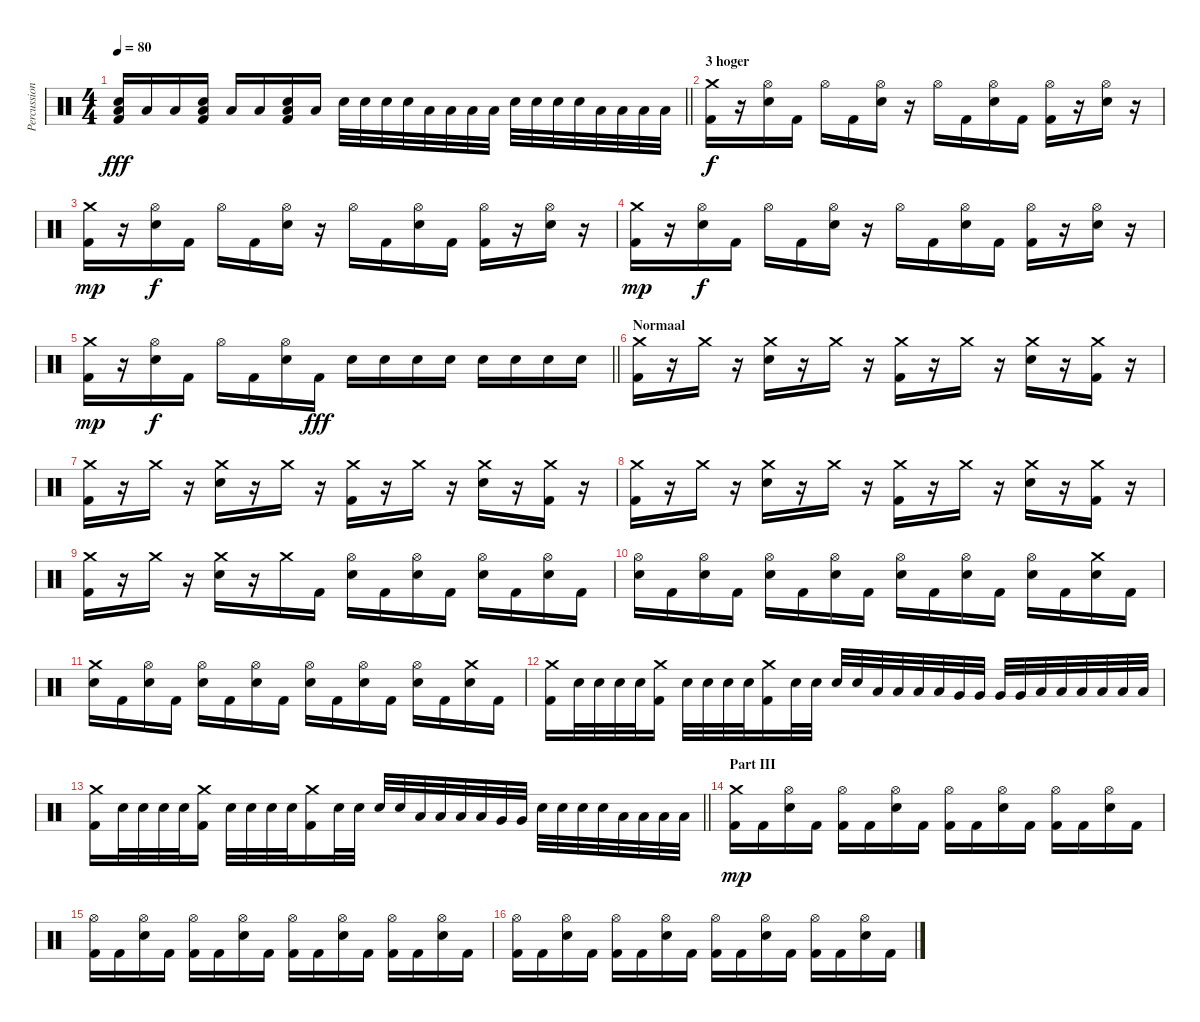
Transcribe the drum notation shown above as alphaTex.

\track ("Percussion" "Percussion") {instrument percussion}
\staff {score}
\articulation defaults
\ts (4 4)
\tempo 80
\clef neutral
\barLineRight lightlight
\ks c
("Electric Snare (hit)" "Low Floor Tom (hit)" "Kick (hit) 2").16{dy fff} "Low Floor Tom (hit)".16 "Low Floor Tom (hit)".16 ("Electric Snare (hit)" "Low Floor Tom (hit)" "Kick (hit) 2").16 "Low Floor Tom (hit)".16 "Low Floor Tom (hit)".16 ("Electric Snare (hit)" "Low Floor Tom (hit)" "Kick (hit) 2").16 "Low Floor Tom (hit)".16 "Electric Snare (hit)".32 "Electric Snare (hit)".32 "Electric Snare (hit)".32 "Electric Snare (hit)".32 "Low Tom (hit)".32 "Low Tom (hit)".32 "Low Tom (hit)".32 "Low Tom (hit)".32 "Electric Snare (hit)".32 "Electric Snare (hit)".32 "Electric Snare (hit)".32 "Electric Snare (hit)".32 "Low Floor Tom (hit)".32 "Low Floor Tom (hit)".32 "Low Floor Tom (hit)".32 "Low Floor Tom (hit)".32 |
\section ("" "3 hoger")
("Crash medium (hit)" "Kick (hit) 2").16{dy f} r.16 ("Hi-Hat (open)" "Electric Snare (hit)").16 "Kick (hit) 2".16 "Hi-Hat (open)".16 "Kick (hit) 2".16 ("Hi-Hat (open)" "Electric Snare (hit)").16 r.16 "Hi-Hat (open)".16 "Kick (hit) 2".16 ("Hi-Hat (open)" "Electric Snare (hit)").16 "Kick (hit) 2".16 ("Hi-Hat (open)" "Kick (hit) 2").16 r.16 ("Hi-Hat (open)" "Electric Snare (hit)").16 r.16 |
("Crash medium (hit)" "Kick (hit) 2").16{dy mp} r.16 ("Hi-Hat (open)" "Electric Snare (hit)").16{dy f} "Kick (hit) 2".16 "Hi-Hat (open)".16 "Kick (hit) 2".16 ("Hi-Hat (open)" "Electric Snare (hit)").16 r.16 "Hi-Hat (open)".16 "Kick (hit) 2".16 ("Hi-Hat (open)" "Electric Snare (hit)").16 "Kick (hit) 2".16 ("Hi-Hat (open)" "Kick (hit) 2").16 r.16 ("Hi-Hat (open)" "Electric Snare (hit)").16 r.16 |
("Crash medium (hit)" "Kick (hit) 2").16{dy mp} r.16 ("Hi-Hat (open)" "Electric Snare (hit)").16{dy f} "Kick (hit) 2".16 "Hi-Hat (open)".16 "Kick (hit) 2".16 ("Hi-Hat (open)" "Electric Snare (hit)").16 r.16 "Hi-Hat (open)".16 "Kick (hit) 2".16 ("Hi-Hat (open)" "Electric Snare (hit)").16 "Kick (hit) 2".16 ("Hi-Hat (open)" "Kick (hit) 2").16 r.16 ("Hi-Hat (open)" "Electric Snare (hit)").16 r.16 |
\barLineRight lightlight
("Crash medium (hit)" "Kick (hit) 2").16{dy mp} r.16 ("Hi-Hat (open)" "Electric Snare (hit)").16{dy f} "Kick (hit) 2".16 "Hi-Hat (open)".16 "Kick (hit) 2".16 ("Hi-Hat (open)" "Electric Snare (hit)").16 "Kick (hit) 2".16{dy fff} "Electric Snare (hit)".16 "Electric Snare (hit)".16 "Electric Snare (hit)".16 "Electric Snare (hit)".16 "Electric Snare (hit)".16 "Electric Snare (hit)".16 "Electric Snare (hit)".16 "Electric Snare (hit)".16 |
\section ("" "Normaal")
("Crash medium (hit)" "Kick (hit) 2").16 r.16 "Crash medium (hit)".16 r.16 ("Crash medium (hit)" "Electric Snare (hit)").16 r.16 "Crash medium (hit)".16 r.16 ("Crash medium (hit)" "Kick (hit) 2").16 r.16 "Crash medium (hit)".16 r.16 ("Crash medium (hit)" "Electric Snare (hit)").16 r.16 ("Crash medium (hit)" "Kick (hit) 2").16 r.16 |
("Crash medium (hit)" "Kick (hit) 2").16 r.16 "Crash medium (hit)".16 r.16 ("Crash medium (hit)" "Electric Snare (hit)").16 r.16 "Crash medium (hit)".16 r.16 ("Crash medium (hit)" "Kick (hit) 2").16 r.16 "Crash medium (hit)".16 r.16 ("Crash medium (hit)" "Electric Snare (hit)").16 r.16 ("Crash medium (hit)" "Kick (hit) 2").16 r.16 |
("Crash medium (hit)" "Kick (hit) 2").16 r.16 "Crash medium (hit)".16 r.16 ("Crash medium (hit)" "Electric Snare (hit)").16 r.16 "Crash medium (hit)".16 r.16 ("Crash medium (hit)" "Kick (hit) 2").16 r.16 "Crash medium (hit)".16 r.16 ("Crash medium (hit)" "Electric Snare (hit)").16 r.16 ("Crash medium (hit)" "Kick (hit) 2").16 r.16 |
("Crash medium (hit)" "Kick (hit) 2").16 r.16 "Crash medium (hit)".16 r.16 ("Crash medium (hit)" "Electric Snare (hit)").16 r.16 "Crash medium (hit)".16 "Kick (hit) 2".16 ("Hi-Hat (open)" "Electric Snare (hit)").16 "Kick (hit) 2".16 ("Hi-Hat (open)" "Electric Snare (hit)").16 "Kick (hit) 2".16 ("Hi-Hat (open)" "Electric Snare (hit)").16 "Kick (hit) 2".16 ("Hi-Hat (open)" "Electric Snare (hit)").16 "Kick (hit) 2".16 |
("Hi-Hat (open)" "Electric Snare (hit)").16 "Kick (hit) 2".16 ("Hi-Hat (open)" "Electric Snare (hit)").16 "Kick (hit) 2".16 ("Hi-Hat (open)" "Electric Snare (hit)").16 "Kick (hit) 2".16 ("Hi-Hat (open)" "Electric Snare (hit)").16 "Kick (hit) 2".16 ("Hi-Hat (open)" "Electric Snare (hit)").16 "Kick (hit) 2".16 ("Hi-Hat (open)" "Electric Snare (hit)").16 "Kick (hit) 2".16 ("Hi-Hat (open)" "Electric Snare (hit)").16 "Kick (hit) 2".16 ("Crash medium (hit)" "Electric Snare (hit)").16 "Kick (hit) 2".16 |
("Crash medium (hit)" "Electric Snare (hit)").16 "Kick (hit) 2".16 ("Hi-Hat (open)" "Electric Snare (hit)").16 "Kick (hit) 2".16 ("Hi-Hat (open)" "Electric Snare (hit)").16 "Kick (hit) 2".16 ("Hi-Hat (open)" "Electric Snare (hit)").16 "Kick (hit) 2".16 ("Hi-Hat (open)" "Electric Snare (hit)").16 "Kick (hit) 2".16 ("Hi-Hat (open)" "Electric Snare (hit)").16 "Kick (hit) 2".16 ("Hi-Hat (open)" "Electric Snare (hit)").16 "Kick (hit) 2".16 ("Crash medium (hit)" "Electric Snare (hit)").16 "Kick (hit) 2".16 |
("Crash medium (hit)" "Kick (hit) 2").16 "Electric Snare (hit)".32 "Electric Snare (hit)".32 "Electric Snare (hit)".32 "Electric Snare (hit)".32 ("Crash medium (hit)" "Kick (hit) 2").16 "Electric Snare (hit)".32 "Electric Snare (hit)".32 "Electric Snare (hit)".32 "Electric Snare (hit)".32 ("Crash medium (hit)" "Kick (hit) 2").16 "Electric Snare (hit)".32 "Electric Snare (hit)".32 "Electric Snare (hit)".32 "Electric Snare (hit)".32 "Low Tom (hit)".32 "Low Tom (hit)".32 "Low Tom (hit)".32 "Low Tom (hit)".32 "Very Low Tom (hit)".32 "Very Low Tom (hit)".32 "Very Low Tom (hit)".32 "Very Low Tom (hit)".32 "Low Floor Tom (hit)".32 "Low Floor Tom (hit)".32 "Low Floor Tom (hit)".32 "Low Floor Tom (hit)".32 "Low Floor Tom (hit)".32 "Low Floor Tom (hit)".32 |
\barLineRight lightlight
("Crash medium (hit)" "Kick (hit) 2").16 "Electric Snare (hit)".32 "Electric Snare (hit)".32 "Electric Snare (hit)".32 "Electric Snare (hit)".32 ("Crash medium (hit)" "Kick (hit) 2").16 "Electric Snare (hit)".32 "Electric Snare (hit)".32 "Electric Snare (hit)".32 "Electric Snare (hit)".32 ("Crash medium (hit)" "Kick (hit) 2").16 "Electric Snare (hit)".32 "Electric Snare (hit)".32 "Electric Snare (hit)".32 "Electric Snare (hit)".32 "Low Tom (hit)".32 "Low Tom (hit)".32 "Low Tom (hit)".32 "Low Tom (hit)".32 "Very Low Tom (hit)".32 "Very Low Tom (hit)".32 "Electric Snare (hit)".32 "Electric Snare (hit)".32 "Electric Snare (hit)".32 "Electric Snare (hit)".32 "Low Floor Tom (hit)".32 "Low Floor Tom (hit)".32 "Low Floor Tom (hit)".32 "Low Floor Tom (hit)".32 |
\section ("" "Part III")
("Crash medium (hit)" "Kick (hit) 2").16{dy mp} "Kick (hit) 2".16 ("Hi-Hat (open)" "Electric Snare (hit)").16 "Kick (hit) 2".16 ("Hi-Hat (open)" "Kick (hit) 2").16 "Kick (hit) 2".16 ("Hi-Hat (open)" "Electric Snare (hit)").16 "Kick (hit) 2".16 ("Hi-Hat (open)" "Kick (hit) 2").16 "Kick (hit) 2".16 ("Hi-Hat (open)" "Electric Snare (hit)").16 "Kick (hit) 2".16 ("Hi-Hat (open)" "Kick (hit) 2").16 "Kick (hit) 2".16 ("Hi-Hat (open)" "Electric Snare (hit)").16 "Kick (hit) 2".16 |
("Hi-Hat (open)" "Kick (hit) 2").16 "Kick (hit) 2".16 ("Hi-Hat (open)" "Electric Snare (hit)").16 "Kick (hit) 2".16 ("Hi-Hat (open)" "Kick (hit) 2").16 "Kick (hit) 2".16 ("Hi-Hat (open)" "Electric Snare (hit)").16 "Kick (hit) 2".16 ("Hi-Hat (open)" "Kick (hit) 2").16 "Kick (hit) 2".16 ("Hi-Hat (open)" "Electric Snare (hit)").16 "Kick (hit) 2".16 ("Hi-Hat (open)" "Kick (hit) 2").16 "Kick (hit) 2".16 ("Hi-Hat (open)" "Electric Snare (hit)").16 "Kick (hit) 2".16 |
("Hi-Hat (open)" "Kick (hit) 2").16 "Kick (hit) 2".16 ("Hi-Hat (open)" "Electric Snare (hit)").16 "Kick (hit) 2".16 ("Hi-Hat (open)" "Kick (hit) 2").16 "Kick (hit) 2".16 ("Hi-Hat (open)" "Electric Snare (hit)").16 "Kick (hit) 2".16 ("Hi-Hat (open)" "Kick (hit) 2").16 "Kick (hit) 2".16 ("Hi-Hat (open)" "Electric Snare (hit)").16 "Kick (hit) 2".16 ("Hi-Hat (open)" "Kick (hit) 2").16 "Kick (hit) 2".16 ("Hi-Hat (open)" "Electric Snare (hit)").16 "Kick (hit) 2".16
